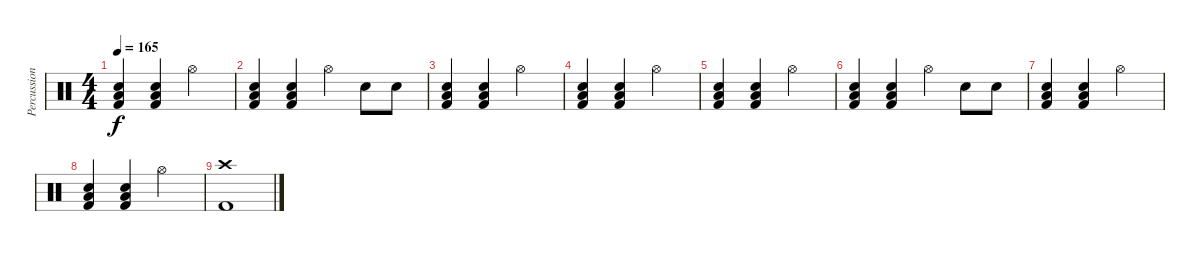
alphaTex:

\track ("Percussion" "Percussion") {instrument percussion}
\staff {score}
\articulation defaults
\ts (4 4)
\tempo 165
\clef neutral
\ks c
("Snare (hit) 2" "Low Tom (hit)" "Kick (hit) 2").4{dy f} ("Snare (hit) 2" "Low Tom (hit)" "Kick (hit) 2").4 "Hi-Hat (open)".2 |
("Snare (hit) 2" "Low Tom (hit)" "Kick (hit) 2").4 ("Snare (hit) 2" "Low Tom (hit)" "Kick (hit) 2").4 "Hi-Hat (open)".4 "Snare (hit) 2".8 "Snare (hit) 2".8 |
("Snare (hit) 2" "Low Tom (hit)" "Kick (hit) 2").4 ("Snare (hit) 2" "Low Tom (hit)" "Kick (hit) 2").4 "Hi-Hat (open)".2 |
("Snare (hit) 2" "Low Tom (hit)" "Kick (hit) 2").4 ("Snare (hit) 2" "Low Tom (hit)" "Kick (hit) 2").4 "Hi-Hat (open)".2 |
("Snare (hit) 2" "Low Tom (hit)" "Kick (hit) 2").4 ("Snare (hit) 2" "Low Tom (hit)" "Kick (hit) 2").4 "Hi-Hat (open)".2 |
("Snare (hit) 2" "Low Tom (hit)" "Kick (hit) 2").4 ("Snare (hit) 2" "Low Tom (hit)" "Kick (hit) 2").4 "Hi-Hat (open)".4 "Snare (hit) 2".8 "Snare (hit) 2".8 |
("Snare (hit) 2" "Low Tom (hit)" "Kick (hit) 2").4 ("Snare (hit) 2" "Low Tom (hit)" "Kick (hit) 2").4 "Hi-Hat (open)".2 |
("Snare (hit) 2" "Low Tom (hit)" "Kick (hit) 2").4 ("Snare (hit) 2" "Low Tom (hit)" "Kick (hit) 2").4 "Hi-Hat (open)".2 |
("Crash high (hit)" "Kick (hit) 2").1
